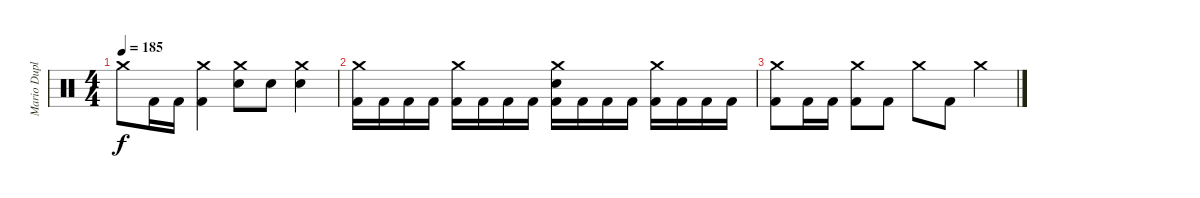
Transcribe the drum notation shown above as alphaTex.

\track ("Mario Duplantier" "Mario Dupl") {instrument percussion}
\staff {score}
\articulation defaults
\ts (4 4)
\tempo 185
\clef neutral
\ks c "Crash medium (hit)".8{dy f} "Kick (hit) 2".16 "Kick (hit) 2".16
("Crash medium (hit)" "Kick (hit) 2").4 ("Crash medium (hit)" "Electric Snare (hit)").8 "Electric Snare (hit)".8 ("Crash medium (hit)" "Electric Snare (hit)").4 |
("Crash medium (hit)" "Kick (hit) 2").16 "Kick (hit) 2".16 "Kick (hit) 2".16 "Kick (hit) 2".16 ("Crash medium (hit)" "Kick (hit) 2").16 "Kick (hit) 2".16 "Kick (hit) 2".16 "Kick (hit) 2".16 ("Crash medium (hit)" "Electric Snare (hit)" "Kick (hit) 2").16 "Kick (hit) 2".16 "Kick (hit) 2".16 "Kick (hit) 2".16 ("Crash medium (hit)" "Kick (hit) 2").16 "Kick (hit) 2".16 "Kick (hit) 2".16 "Kick (hit) 2".16 |
("Crash medium (hit)" "Kick (hit) 2").8 "Kick (hit) 2".16 "Kick (hit) 2".16 ("Crash medium (hit)" "Kick (hit) 2").8 "Kick (hit) 2".8 "Crash medium (hit)".8 "Kick (hit) 2".8 "Crash medium (hit)".4
